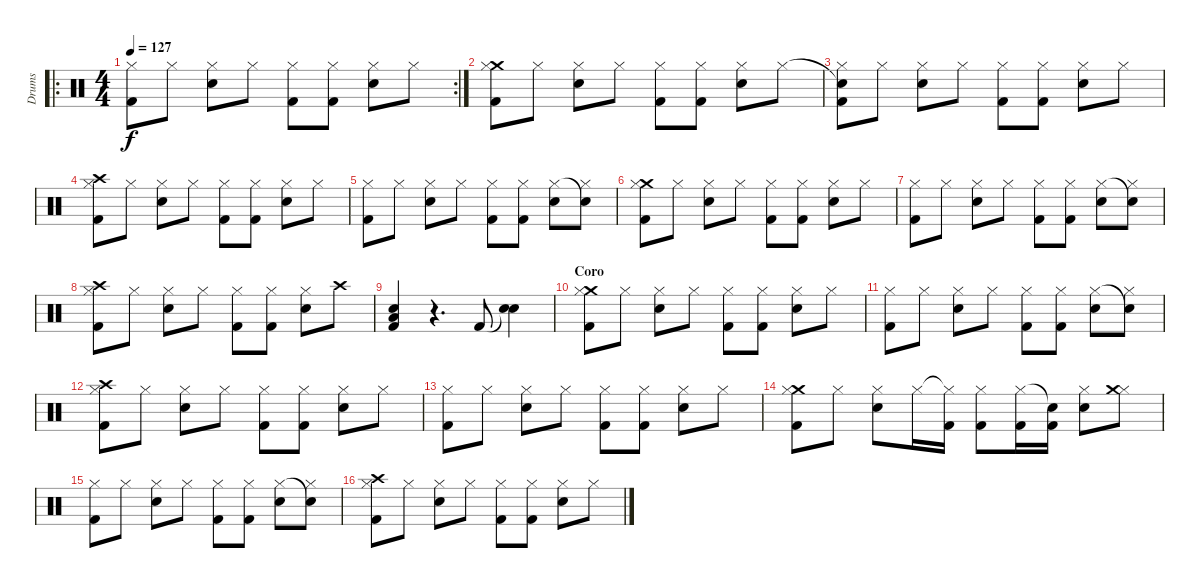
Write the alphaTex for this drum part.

\track ("Drums" "Drums") {instrument percussion}
\staff {score}
\articulation defaults
\ro
\rc 2
\ts (4 4)
\tempo 127
\clef neutral
\ks c
("Hi-Hat (closed)" "Kick (hit) 2").8{dy f} "Hi-Hat (closed)".8 ("Hi-Hat (closed)" "Electric Snare (hit)").8 "Hi-Hat (closed)".8 ("Hi-Hat (closed)" "Kick (hit) 2").8 ("Hi-Hat (closed)" "Kick (hit) 2").8 ("Hi-Hat (closed)" "Electric Snare (hit)").8 "Hi-Hat (closed)".8 |
("Crash medium (hit)" "Hi-Hat (closed)" "Kick (hit) 2").8 "Hi-Hat (closed)".8 ("Hi-Hat (closed)" "Electric Snare (hit)").8 "Hi-Hat (closed)".8 ("Hi-Hat (closed)" "Kick (hit) 2").8 ("Hi-Hat (closed)" "Kick (hit) 2").8 ("Hi-Hat (closed)" "Electric Snare (hit)").8 "Hi-Hat (closed)".8 |
("Snare (hit)"{t} "Hi-Hat (closed)" "Kick (hit) 2").8 "Hi-Hat (closed)".8 ("Hi-Hat (closed)" "Electric Snare (hit)").8 "Hi-Hat (closed)".8 ("Hi-Hat (closed)" "Kick (hit) 2").8 ("Hi-Hat (closed)" "Kick (hit) 2").8 ("Hi-Hat (closed)" "Electric Snare (hit)").8 "Hi-Hat (closed)".8 |
("Crash high (hit)" "Hi-Hat (closed)" "Kick (hit) 2").8 "Hi-Hat (closed)".8 ("Hi-Hat (closed)" "Electric Snare (hit)").8 "Hi-Hat (closed)".8 ("Hi-Hat (closed)" "Kick (hit) 2").8 ("Hi-Hat (closed)" "Kick (hit) 2").8 ("Hi-Hat (closed)" "Electric Snare (hit)").8 "Hi-Hat (closed)".8 |
("Hi-Hat (closed)" "Kick (hit) 2").8 "Hi-Hat (closed)".8 ("Hi-Hat (closed)" "Electric Snare (hit)").8 "Hi-Hat (closed)".8 ("Hi-Hat (closed)" "Kick (hit) 2").8 ("Hi-Hat (closed)" "Kick (hit) 2").8 ("Hi-Hat (closed)" "Electric Snare (hit)").8 ("Snare (hit)"{t} "Hi-Hat (closed)").8 |
("Crash medium (hit)" "Hi-Hat (closed)" "Kick (hit) 2").8 "Hi-Hat (closed)".8 ("Hi-Hat (closed)" "Electric Snare (hit)").8 "Hi-Hat (closed)".8 ("Hi-Hat (closed)" "Kick (hit) 2").8 ("Hi-Hat (closed)" "Kick (hit) 2").8 ("Hi-Hat (closed)" "Electric Snare (hit)").8 "Hi-Hat (closed)".8 |
("Hi-Hat (closed)" "Kick (hit) 2").8 "Hi-Hat (closed)".8 ("Hi-Hat (closed)" "Electric Snare (hit)").8 "Hi-Hat (closed)".8 ("Hi-Hat (closed)" "Kick (hit) 2").8 ("Hi-Hat (closed)" "Kick (hit) 2").8 ("Hi-Hat (closed)" "Electric Snare (hit)").8 ("Snare (hit)"{t} "Hi-Hat (closed)").8 |
("Crash high (hit)" "Hi-Hat (closed)" "Kick (hit) 2").8 "Hi-Hat (closed)".8 ("Hi-Hat (closed)" "Electric Snare (hit)").8 "Hi-Hat (closed)".8 ("Hi-Hat (closed)" "Kick (hit) 2").8 ("Hi-Hat (closed)" "Kick (hit) 2").8 ("Hi-Hat (closed)" "Electric Snare (hit)").8 "Crash high (hit)".8 |
("Electric Snare (hit)" "Low Floor Tom (hit)" "Kick (hit) 2").4 r.4{d} "Kick (hit) 2".8 ("Snare (hit)"{t} "Electric Snare (hit)").4 |
\section ("" "Coro")
("Crash medium (hit)" "Hi-Hat (closed)" "Kick (hit) 2").8 "Hi-Hat (closed)".8 ("Hi-Hat (closed)" "Electric Snare (hit)").8 "Hi-Hat (closed)".8 ("Hi-Hat (closed)" "Kick (hit) 2").8 ("Hi-Hat (closed)" "Kick (hit) 2").8 ("Hi-Hat (closed)" "Electric Snare (hit)").8 "Hi-Hat (closed)".8 |
("Hi-Hat (closed)" "Kick (hit) 2").8 "Hi-Hat (closed)".8 ("Hi-Hat (closed)" "Electric Snare (hit)").8 "Hi-Hat (closed)".8 ("Hi-Hat (closed)" "Kick (hit) 2").8 ("Hi-Hat (closed)" "Kick (hit) 2").8 ("Hi-Hat (closed)" "Electric Snare (hit)").8 ("Snare (hit)"{t} "Hi-Hat (closed)").8 |
("Crash high (hit)" "Hi-Hat (closed)" "Kick (hit) 2").8 "Hi-Hat (closed)".8 ("Hi-Hat (closed)" "Electric Snare (hit)").8 "Hi-Hat (closed)".8 ("Hi-Hat (closed)" "Kick (hit) 2").8 ("Hi-Hat (closed)" "Kick (hit) 2").8 ("Hi-Hat (closed)" "Electric Snare (hit)").8 "Hi-Hat (closed)".8 |
("Hi-Hat (closed)" "Kick (hit) 2").8 "Hi-Hat (closed)".8 ("Hi-Hat (closed)" "Electric Snare (hit)").8 "Hi-Hat (closed)".8 ("Hi-Hat (closed)" "Kick (hit) 2").8 ("Hi-Hat (closed)" "Kick (hit) 2").8 ("Hi-Hat (closed)" "Electric Snare (hit)").8 "Hi-Hat (closed)".8 |
("Crash medium (hit)" "Hi-Hat (closed)" "Kick (hit) 2").8 "Hi-Hat (closed)".8 ("Hi-Hat (closed)" "Electric Snare (hit)").8 "Hi-Hat (closed)".16 ("Hi-Hat (closed)"{t} "Kick (hit) 2").16 ("Hi-Hat (closed)" "Kick (hit) 2").8 ("Hi-Hat (closed)" "Kick (hit) 2").16 ("Snare (hit)"{t} "Kick (hit) 2").16 ("Hi-Hat (closed)" "Electric Snare (hit)").8 ("Hi-Hat (closed)" "Crash medium (hit)").8 |
("Hi-Hat (closed)" "Kick (hit) 2").8 "Hi-Hat (closed)".8 ("Hi-Hat (closed)" "Electric Snare (hit)").8 "Hi-Hat (closed)".8 ("Hi-Hat (closed)" "Kick (hit) 2").8 ("Hi-Hat (closed)" "Kick (hit) 2").8 ("Hi-Hat (closed)" "Electric Snare (hit)").8 ("Snare (hit)"{t} "Hi-Hat (closed)").8 |
("Crash high (hit)" "Hi-Hat (closed)" "Kick (hit) 2").8 "Hi-Hat (closed)".8 ("Hi-Hat (closed)" "Electric Snare (hit)").8 "Hi-Hat (closed)".8 ("Hi-Hat (closed)" "Kick (hit) 2").8 ("Hi-Hat (closed)" "Kick (hit) 2").8 ("Hi-Hat (closed)" "Electric Snare (hit)").8 "Hi-Hat (closed)".8
